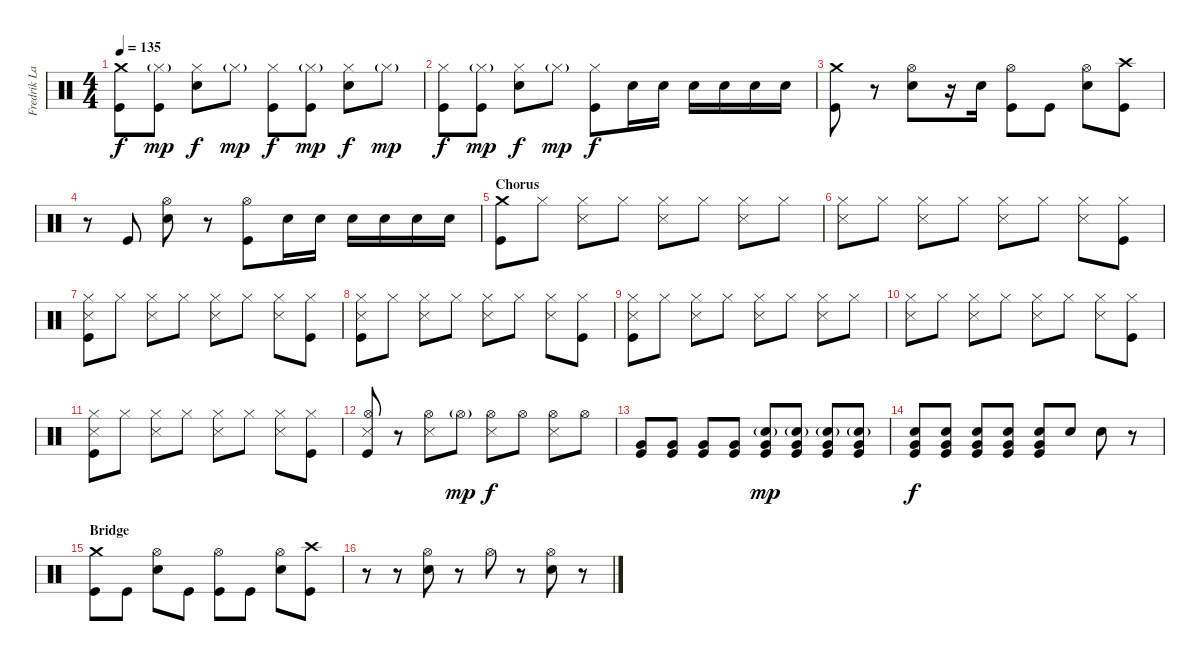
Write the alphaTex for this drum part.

\track ("Fredrik Larzon" "Fredrik La") {instrument percussion}
\staff {score}
\articulation defaults
\ts (4 4)
\tempo 135
\clef neutral
\ks c
("Crash medium (hit)" "Kick (hit)").8{dy f} ("Hi-Hat (closed)"{g} "Kick (hit)").8{dy mp} ("Hi-Hat (closed)" "Electric Snare (hit)").8{dy f} "Hi-Hat (closed)"{g}.8{dy mp} ("Hi-Hat (closed)" "Kick (hit)").8{dy f} ("Hi-Hat (closed)"{g} "Kick (hit)").8{dy mp} ("Hi-Hat (closed)" "Electric Snare (hit)").8{dy f} "Hi-Hat (closed)"{g}.8{dy mp} |
("Hi-Hat (closed)" "Kick (hit)").8{dy f} ("Hi-Hat (closed)"{g} "Kick (hit)").8{dy mp} ("Hi-Hat (closed)" "Electric Snare (hit)").8{dy f} "Hi-Hat (closed)"{g}.8{dy mp} ("Hi-Hat (closed)" "Kick (hit)").8{dy f} "Electric Snare (hit)".16 "Electric Snare (hit)".16 "Electric Snare (hit)".16 "Electric Snare (hit)".16 "Electric Snare (hit)".16 "Electric Snare (hit)".16 |
("Crash medium (hit)" "Kick (hit)").8 r.8 ("Hi-Hat (open)" "Electric Snare (hit)").8 r.16 "Electric Snare (hit)".16 ("Hi-Hat (open)" "Kick (hit)").8 "Kick (hit)".8 ("Hi-Hat (open)" "Electric Snare (hit)").8 ("Crash high (hit)" "Kick (hit)").8 |
r.8 "Kick (hit)".8 ("Hi-Hat (open)" "Electric Snare (hit)").8 r.8 ("Hi-Hat (open)" "Kick (hit)").8 "Electric Snare (hit)".16 "Electric Snare (hit)".16 "Electric Snare (hit)".16 "Electric Snare (hit)".16 "Electric Snare (hit)".16 "Electric Snare (hit)".16 |
\section ("" "Chorus")
("Crash medium (hit)" "Kick (hit)").8 "Hi-Hat (closed)".8 ("Hi-Hat (closed)" "Snare (side stick) 3").8 "Hi-Hat (closed)".8 ("Hi-Hat (closed)" "Snare (side stick) 3").8 "Hi-Hat (closed)".8 ("Hi-Hat (closed)" "Snare (side stick) 3").8 "Hi-Hat (closed)".8 |
("Hi-Hat (closed)" "Snare (side stick) 3").8 "Hi-Hat (closed)".8 ("Hi-Hat (closed)" "Snare (side stick) 3").8 "Hi-Hat (closed)".8 ("Hi-Hat (closed)" "Snare (side stick) 3").8 "Hi-Hat (closed)".8 ("Hi-Hat (closed)" "Snare (side stick) 3").8 ("Hi-Hat (closed)" "Kick (hit)").8 |
("Hi-Hat (closed)" "Snare (side stick) 3" "Kick (hit)").8 "Hi-Hat (closed)".8 ("Hi-Hat (closed)" "Snare (side stick) 3").8 "Hi-Hat (closed)".8 ("Hi-Hat (closed)" "Snare (side stick) 3").8 "Hi-Hat (closed)".8 ("Hi-Hat (closed)" "Snare (side stick) 3").8 ("Hi-Hat (closed)" "Kick (hit)").8 |
("Hi-Hat (closed)" "Snare (side stick) 3" "Kick (hit)").8 "Hi-Hat (closed)".8 ("Hi-Hat (closed)" "Snare (side stick) 3").8 "Hi-Hat (closed)".8 ("Hi-Hat (closed)" "Snare (side stick) 3").8 "Hi-Hat (closed)".8 ("Hi-Hat (closed)" "Snare (side stick) 3").8 ("Hi-Hat (closed)" "Kick (hit)").8 |
("Hi-Hat (closed)" "Snare (side stick) 3" "Kick (hit)").8 "Hi-Hat (closed)".8 ("Hi-Hat (closed)" "Snare (side stick) 3").8 "Hi-Hat (closed)".8 ("Hi-Hat (closed)" "Snare (side stick) 3").8 "Hi-Hat (closed)".8 ("Hi-Hat (closed)" "Snare (side stick) 3").8 "Hi-Hat (closed)".8 |
("Hi-Hat (closed)" "Snare (side stick) 3").8 "Hi-Hat (closed)".8 ("Hi-Hat (closed)" "Snare (side stick) 3").8 "Hi-Hat (closed)".8 ("Hi-Hat (closed)" "Snare (side stick) 3").8 "Hi-Hat (closed)".8 ("Hi-Hat (closed)" "Snare (side stick) 3").8 ("Hi-Hat (closed)" "Kick (hit)").8 |
("Hi-Hat (closed)" "Snare (side stick) 3" "Kick (hit)").8 "Hi-Hat (closed)".8 ("Hi-Hat (closed)" "Snare (side stick) 3").8 "Hi-Hat (closed)".8 ("Hi-Hat (closed)" "Snare (side stick) 3").8 "Hi-Hat (closed)".8 ("Hi-Hat (closed)" "Snare (side stick) 3").8 ("Hi-Hat (closed)" "Kick (hit)").8 |
("Hi-Hat (open)" "Snare (side stick) 3" "Kick (hit)").8 r.8 ("Hi-Hat (open)" "Snare (side stick) 3").8 "Hi-Hat (open)"{g}.8{dy mp} ("Hi-Hat (open)" "Snare (side stick) 3").8{dy f} "Hi-Hat (open)".8 ("Hi-Hat (open)" "Snare (side stick) 3").8 "Hi-Hat (open)".8 |
("Very Low Tom (hit)" "Kick (hit)").8 ("Very Low Tom (hit)" "Kick (hit)").8 ("Very Low Tom (hit)" "Kick (hit)").8 ("Very Low Tom (hit)" "Kick (hit)").8 ("Electric Snare (hit)"{g} "Very Low Tom (hit)" "Kick (hit)").8{dy mp} ("Electric Snare (hit)"{g} "Very Low Tom (hit)" "Kick (hit)").8 ("Electric Snare (hit)"{g} "Very Low Tom (hit)" "Kick (hit)").8 ("Electric Snare (hit)"{g} "Very Low Tom (hit)" "Kick (hit)").8 |
("Electric Snare (hit)" "Very Low Tom (hit)" "Kick (hit)").8{dy f} ("Electric Snare (hit)" "Very Low Tom (hit)" "Kick (hit)").8 ("Electric Snare (hit)" "Very Low Tom (hit)" "Kick (hit)").8 ("Electric Snare (hit)" "Very Low Tom (hit)" "Kick (hit)").8 ("Electric Snare (hit)" "Very Low Tom (hit)" "Kick (hit)").8 "Electric Snare (hit)".8 "Electric Snare (hit)".8 r.8 |
\section ("" "Bridge")
("Crash medium (hit)" "Kick (hit)").8 "Kick (hit)".8 ("Hi-Hat (open)" "Electric Snare (hit)").8 "Kick (hit)".8 ("Hi-Hat (open)" "Kick (hit)").8 "Kick (hit)".8 ("Hi-Hat (open)" "Electric Snare (hit)").8 ("Crash high (hit)" "Kick (hit)").8 |
r.8 r.8 ("Hi-Hat (open)" "Electric Snare (hit)").8 r.8 "Hi-Hat (open)".8 r.8 ("Hi-Hat (open)" "Electric Snare (hit)").8 r.8
